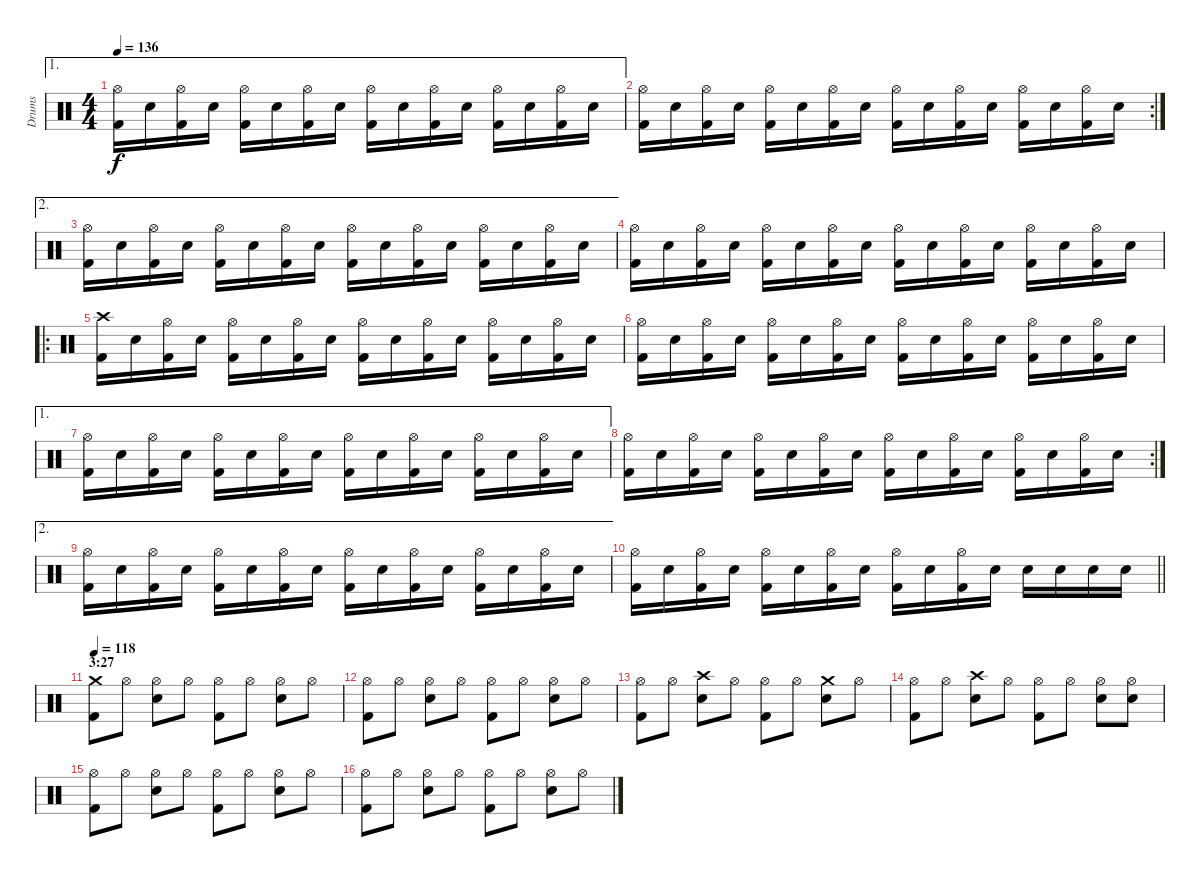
\track ("Drums" "Drums") {instrument percussion}
\staff {score}
\articulation defaults
\ae 1
\ts (4 4)
\tempo 136
\clef neutral
\ks c
("Hi-Hat (open)" "Kick (hit) 2").16{dy f} "Electric Snare (hit)".16 ("Hi-Hat (open)" "Kick (hit) 2").16 "Electric Snare (hit)".16 ("Hi-Hat (open)" "Kick (hit) 2").16 "Electric Snare (hit)".16 ("Hi-Hat (open)" "Kick (hit) 2").16 "Electric Snare (hit)".16 ("Hi-Hat (open)" "Kick (hit) 2").16 "Electric Snare (hit)".16 ("Hi-Hat (open)" "Kick (hit) 2").16 "Electric Snare (hit)".16 ("Hi-Hat (open)" "Kick (hit) 2").16 "Electric Snare (hit)".16 ("Hi-Hat (open)" "Kick (hit) 2").16 "Electric Snare (hit)".16 |
\rc 2
("Hi-Hat (open)" "Kick (hit) 2").16 "Electric Snare (hit)".16 ("Hi-Hat (open)" "Kick (hit) 2").16 "Electric Snare (hit)".16 ("Hi-Hat (open)" "Kick (hit) 2").16 "Electric Snare (hit)".16 ("Hi-Hat (open)" "Kick (hit) 2").16 "Electric Snare (hit)".16 ("Hi-Hat (open)" "Kick (hit) 2").16 "Electric Snare (hit)".16 ("Hi-Hat (open)" "Kick (hit) 2").16 "Electric Snare (hit)".16 ("Hi-Hat (open)" "Kick (hit) 2").16 "Electric Snare (hit)".16 ("Hi-Hat (open)" "Kick (hit) 2").16 "Electric Snare (hit)".16 |
\ae 2
("Hi-Hat (open)" "Kick (hit) 2").16 "Electric Snare (hit)".16 ("Hi-Hat (open)" "Kick (hit) 2").16 "Electric Snare (hit)".16 ("Hi-Hat (open)" "Kick (hit) 2").16 "Electric Snare (hit)".16 ("Hi-Hat (open)" "Kick (hit) 2").16 "Electric Snare (hit)".16 ("Hi-Hat (open)" "Kick (hit) 2").16 "Electric Snare (hit)".16 ("Hi-Hat (open)" "Kick (hit) 2").16 "Electric Snare (hit)".16 ("Hi-Hat (open)" "Kick (hit) 2").16 "Electric Snare (hit)".16 ("Hi-Hat (open)" "Kick (hit) 2").16 "Electric Snare (hit)".16 |
("Hi-Hat (open)" "Kick (hit) 2").16 "Electric Snare (hit)".16 ("Hi-Hat (open)" "Kick (hit) 2").16 "Electric Snare (hit)".16 ("Hi-Hat (open)" "Kick (hit) 2").16 "Electric Snare (hit)".16 ("Hi-Hat (open)" "Kick (hit) 2").16 "Electric Snare (hit)".16 ("Hi-Hat (open)" "Kick (hit) 2").16 "Electric Snare (hit)".16 ("Hi-Hat (open)" "Kick (hit) 2").16 "Electric Snare (hit)".16 ("Hi-Hat (open)" "Kick (hit) 2").16 "Electric Snare (hit)".16 ("Hi-Hat (open)" "Kick (hit) 2").16 "Electric Snare (hit)".16 |
\ro
("Crash high (hit)" "Kick (hit) 2").16 "Electric Snare (hit)".16 ("Hi-Hat (open)" "Kick (hit) 2").16 "Electric Snare (hit)".16 ("Hi-Hat (open)" "Kick (hit) 2").16 "Electric Snare (hit)".16 ("Hi-Hat (open)" "Kick (hit) 2").16 "Electric Snare (hit)".16 ("Hi-Hat (open)" "Kick (hit) 2").16 "Electric Snare (hit)".16 ("Hi-Hat (open)" "Kick (hit) 2").16 "Electric Snare (hit)".16 ("Hi-Hat (open)" "Kick (hit) 2").16 "Electric Snare (hit)".16 ("Hi-Hat (open)" "Kick (hit) 2").16 "Electric Snare (hit)".16 |
("Hi-Hat (open)" "Kick (hit) 2").16 "Electric Snare (hit)".16 ("Hi-Hat (open)" "Kick (hit) 2").16 "Electric Snare (hit)".16 ("Hi-Hat (open)" "Kick (hit) 2").16 "Electric Snare (hit)".16 ("Hi-Hat (open)" "Kick (hit) 2").16 "Electric Snare (hit)".16 ("Hi-Hat (open)" "Kick (hit) 2").16 "Electric Snare (hit)".16 ("Hi-Hat (open)" "Kick (hit) 2").16 "Electric Snare (hit)".16 ("Hi-Hat (open)" "Kick (hit) 2").16 "Electric Snare (hit)".16 ("Hi-Hat (open)" "Kick (hit) 2").16 "Electric Snare (hit)".16 |
\ae 1
("Hi-Hat (open)" "Kick (hit) 2").16 "Electric Snare (hit)".16 ("Hi-Hat (open)" "Kick (hit) 2").16 "Electric Snare (hit)".16 ("Hi-Hat (open)" "Kick (hit) 2").16 "Electric Snare (hit)".16 ("Hi-Hat (open)" "Kick (hit) 2").16 "Electric Snare (hit)".16 ("Hi-Hat (open)" "Kick (hit) 2").16 "Electric Snare (hit)".16 ("Hi-Hat (open)" "Kick (hit) 2").16 "Electric Snare (hit)".16 ("Hi-Hat (open)" "Kick (hit) 2").16 "Electric Snare (hit)".16 ("Hi-Hat (open)" "Kick (hit) 2").16 "Electric Snare (hit)".16 |
\rc 2
("Hi-Hat (open)" "Kick (hit) 2").16 "Electric Snare (hit)".16 ("Hi-Hat (open)" "Kick (hit) 2").16 "Electric Snare (hit)".16 ("Hi-Hat (open)" "Kick (hit) 2").16 "Electric Snare (hit)".16 ("Hi-Hat (open)" "Kick (hit) 2").16 "Electric Snare (hit)".16 ("Hi-Hat (open)" "Kick (hit) 2").16 "Electric Snare (hit)".16 ("Hi-Hat (open)" "Kick (hit) 2").16 "Electric Snare (hit)".16 ("Hi-Hat (open)" "Kick (hit) 2").16 "Electric Snare (hit)".16 ("Hi-Hat (open)" "Kick (hit) 2").16 "Electric Snare (hit)".16 |
\ae 2
("Hi-Hat (open)" "Kick (hit) 2").16 "Electric Snare (hit)".16 ("Hi-Hat (open)" "Kick (hit) 2").16 "Electric Snare (hit)".16 ("Hi-Hat (open)" "Kick (hit) 2").16 "Electric Snare (hit)".16 ("Hi-Hat (open)" "Kick (hit) 2").16 "Electric Snare (hit)".16 ("Hi-Hat (open)" "Kick (hit) 2").16 "Electric Snare (hit)".16 ("Hi-Hat (open)" "Kick (hit) 2").16 "Electric Snare (hit)".16 ("Hi-Hat (open)" "Kick (hit) 2").16 "Electric Snare (hit)".16 ("Hi-Hat (open)" "Kick (hit) 2").16 "Electric Snare (hit)".16 |
\barLineRight lightlight
("Hi-Hat (open)" "Kick (hit) 2").16 "Electric Snare (hit)".16 ("Hi-Hat (open)" "Kick (hit) 2").16 "Electric Snare (hit)".16 ("Hi-Hat (open)" "Kick (hit) 2").16 "Electric Snare (hit)".16 ("Hi-Hat (open)" "Kick (hit) 2").16 "Electric Snare (hit)".16 ("Hi-Hat (open)" "Kick (hit) 2").16 "Electric Snare (hit)".16 ("Hi-Hat (open)" "Kick (hit) 2").16 "Electric Snare (hit)".16 "Electric Snare (hit)".16 "Electric Snare (hit)".16 "Electric Snare (hit)".16 "Electric Snare (hit)".16 |
\section ("" "3:27")
\tempo 118
("Crash medium (hit)" "Kick (hit) 2").8 "Hi-Hat (open)".8 ("Hi-Hat (open)" "Electric Snare (hit)").8 "Hi-Hat (open)".8 ("Hi-Hat (open)" "Kick (hit) 2").8 "Hi-Hat (open)".8 ("Hi-Hat (open)" "Electric Snare (hit)").8 "Hi-Hat (open)".8 |
("Hi-Hat (open)" "Kick (hit) 2").8 "Hi-Hat (open)".8 ("Hi-Hat (open)" "Electric Snare (hit)").8 "Hi-Hat (open)".8 ("Hi-Hat (open)" "Kick (hit) 2").8 "Hi-Hat (open)".8 ("Hi-Hat (open)" "Electric Snare (hit)").8 "Hi-Hat (open)".8 |
("Hi-Hat (open)" "Kick (hit) 2").8 "Hi-Hat (open)".8 ("Crash high (hit)" "Electric Snare (hit)").8 "Hi-Hat (open)".8 ("Hi-Hat (open)" "Kick (hit) 2").8 "Hi-Hat (open)".8 ("Crash medium (hit)" "Electric Snare (hit)").8 "Hi-Hat (open)".8 |
("Hi-Hat (open)" "Kick (hit) 2").8 "Hi-Hat (open)".8 ("Crash high (hit)" "Electric Snare (hit)").8 "Hi-Hat (open)".8 ("Hi-Hat (open)" "Kick (hit) 2").8 "Hi-Hat (open)".8 ("Hi-Hat (open)" "Electric Snare (hit)").8 ("Hi-Hat (open)" "Electric Snare (hit)").8 |
("Hi-Hat (open)" "Kick (hit) 2").8 "Hi-Hat (open)".8 ("Hi-Hat (open)" "Electric Snare (hit)").8 "Hi-Hat (open)".8 ("Hi-Hat (open)" "Kick (hit) 2").8 "Hi-Hat (open)".8 ("Hi-Hat (open)" "Electric Snare (hit)").8 "Hi-Hat (open)".8 |
("Hi-Hat (open)" "Kick (hit) 2").8 "Hi-Hat (open)".8 ("Hi-Hat (open)" "Electric Snare (hit)").8 "Hi-Hat (open)".8 ("Hi-Hat (open)" "Kick (hit) 2").8 "Hi-Hat (open)".8 ("Hi-Hat (open)" "Electric Snare (hit)").8 "Hi-Hat (open)".8
